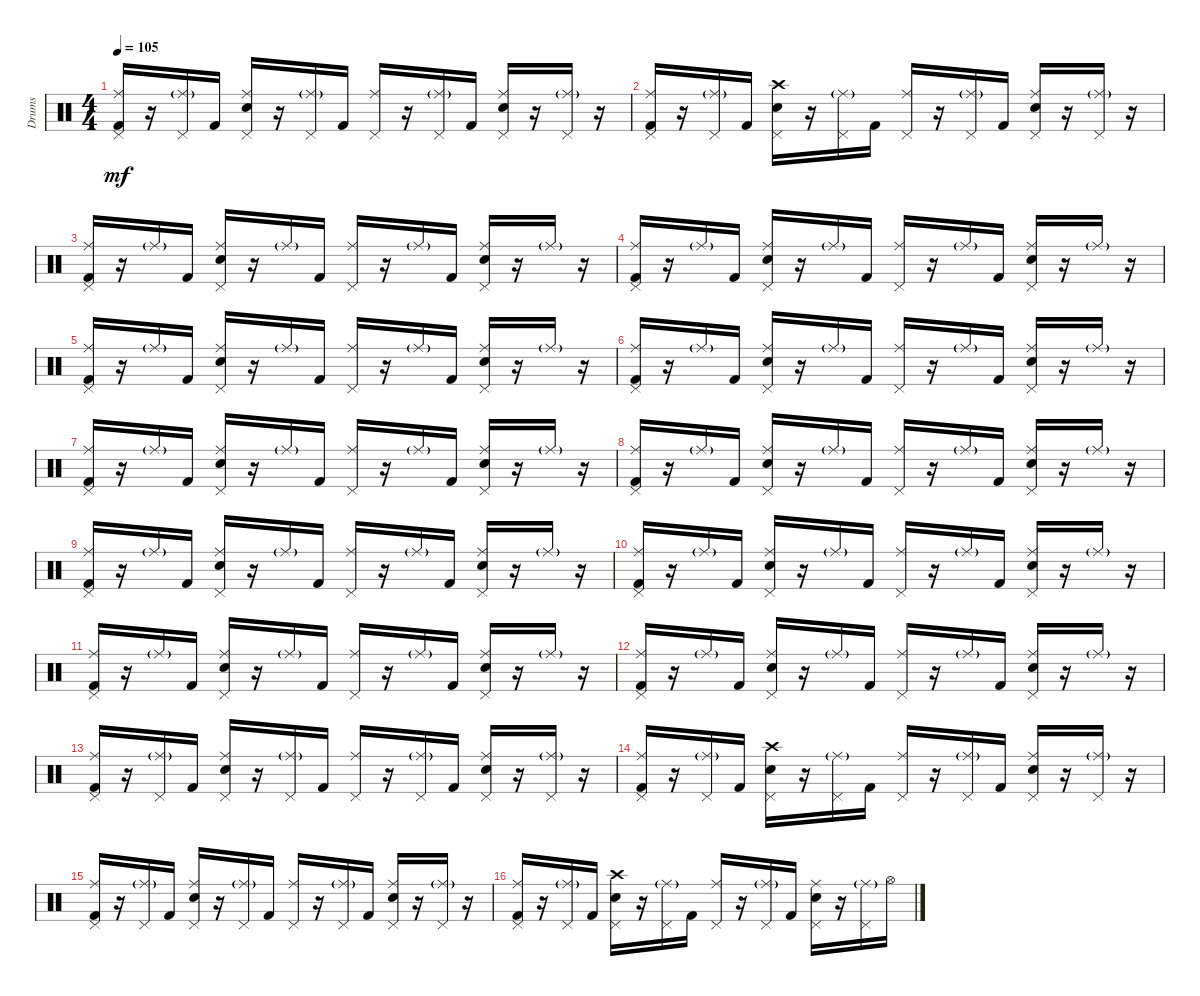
\defaultSystemsLayout 4
\bracketExtendMode groupsimilarinstruments
\otherSystemsTrackNameOrientation horizontal
\track ("Godd" "Drums") {instrument percussion}
\staff {score}
\articulation defaults
\ts (4 4)
\tempo 105
\clef neutral
\ks c
("Pedal Hi-Hat (hit)" "Kick (hit) 2" "Ride (middle)").16{dy mf} r.16 ("Pedal Hi-Hat (hit)" "Ride (middle)"{g}).16 "Kick (hit) 2".16 ("Pedal Hi-Hat (hit)" "Snare (hit) 2" "Ride (middle)").16 r.16 ("Pedal Hi-Hat (hit)" "Ride (middle)"{g}).16 "Kick (hit) 2".16 ("Pedal Hi-Hat (hit)" "Ride (middle)").16 r.16 ("Pedal Hi-Hat (hit)" "Ride (middle)"{g}).16 "Kick (hit) 2".16 ("Pedal Hi-Hat (hit)" "Ride (middle)" "Snare (hit) 2").16 r.16 ("Pedal Hi-Hat (hit)" "Ride (middle)"{g}).16 r.16 |
("Pedal Hi-Hat (hit)" "Kick (hit) 2" "Ride (middle)").16 r.16 ("Pedal Hi-Hat (hit)" "Ride (middle)"{g}).16 "Kick (hit) 2".16 ("Pedal Hi-Hat (hit)" "Snare (hit) 2" "Crash high (hit)").16 r.16 ("Pedal Hi-Hat (hit)" "Ride (middle)"{g}).16 "Kick (hit) 2".16 ("Pedal Hi-Hat (hit)" "Ride (middle)").16 r.16 ("Pedal Hi-Hat (hit)" "Ride (middle)"{g}).16 "Kick (hit) 2".16 ("Pedal Hi-Hat (hit)" "Ride (middle)" "Snare (hit) 2").16 r.16 ("Pedal Hi-Hat (hit)" "Ride (middle)"{g}).16 r.16 |
("Pedal Hi-Hat (hit)" "Kick (hit) 2" "Ride (middle)").16 r.16 "Ride (middle)"{g}.16 "Kick (hit) 2".16 ("Pedal Hi-Hat (hit)" "Snare (hit) 2" "Ride (middle)").16 r.16 "Ride (middle)"{g}.16 "Kick (hit) 2".16 ("Pedal Hi-Hat (hit)" "Ride (middle)").16 r.16 "Ride (middle)"{g}.16 "Kick (hit) 2".16 ("Pedal Hi-Hat (hit)" "Ride (middle)" "Snare (hit) 2").16 r.16 "Ride (middle)"{g}.16 r.16 |
("Pedal Hi-Hat (hit)" "Kick (hit) 2" "Ride (middle)").16 r.16 "Ride (middle)"{g}.16 "Kick (hit) 2".16 ("Pedal Hi-Hat (hit)" "Snare (hit) 2" "Ride (middle)").16 r.16 "Ride (middle)"{g}.16 "Kick (hit) 2".16 ("Pedal Hi-Hat (hit)" "Ride (middle)").16 r.16 "Ride (middle)"{g}.16 "Kick (hit) 2".16 ("Pedal Hi-Hat (hit)" "Ride (middle)" "Snare (hit) 2").16 r.16 "Ride (middle)"{g}.16 r.16 |
("Pedal Hi-Hat (hit)" "Kick (hit) 2" "Ride (middle)").16 r.16 "Ride (middle)"{g}.16 "Kick (hit) 2".16 ("Pedal Hi-Hat (hit)" "Snare (hit) 2" "Ride (middle)").16 r.16 "Ride (middle)"{g}.16 "Kick (hit) 2".16 ("Pedal Hi-Hat (hit)" "Ride (middle)").16 r.16 "Ride (middle)"{g}.16 "Kick (hit) 2".16 ("Pedal Hi-Hat (hit)" "Ride (middle)" "Snare (hit) 2").16 r.16 "Ride (middle)"{g}.16 r.16 |
("Pedal Hi-Hat (hit)" "Kick (hit) 2" "Ride (middle)").16 r.16 "Ride (middle)"{g}.16 "Kick (hit) 2".16 ("Pedal Hi-Hat (hit)" "Snare (hit) 2" "Ride (middle)").16 r.16 "Ride (middle)"{g}.16 "Kick (hit) 2".16 ("Pedal Hi-Hat (hit)" "Ride (middle)").16 r.16 "Ride (middle)"{g}.16 "Kick (hit) 2".16 ("Pedal Hi-Hat (hit)" "Ride (middle)" "Snare (hit) 2").16 r.16 "Ride (middle)"{g}.16 r.16 |
("Pedal Hi-Hat (hit)" "Kick (hit) 2" "Ride (middle)").16 r.16 "Ride (middle)"{g}.16 "Kick (hit) 2".16 ("Pedal Hi-Hat (hit)" "Snare (hit) 2" "Ride (middle)").16 r.16 "Ride (middle)"{g}.16 "Kick (hit) 2".16 ("Pedal Hi-Hat (hit)" "Ride (middle)").16 r.16 "Ride (middle)"{g}.16 "Kick (hit) 2".16 ("Pedal Hi-Hat (hit)" "Ride (middle)" "Snare (hit) 2").16 r.16 "Ride (middle)"{g}.16 r.16 |
("Pedal Hi-Hat (hit)" "Kick (hit) 2" "Ride (middle)").16 r.16 "Ride (middle)"{g}.16 "Kick (hit) 2".16 ("Pedal Hi-Hat (hit)" "Snare (hit) 2" "Ride (middle)").16 r.16 "Ride (middle)"{g}.16 "Kick (hit) 2".16 ("Pedal Hi-Hat (hit)" "Ride (middle)").16 r.16 "Ride (middle)"{g}.16 "Kick (hit) 2".16 ("Pedal Hi-Hat (hit)" "Ride (middle)" "Snare (hit) 2").16 r.16 "Ride (middle)"{g}.16 r.16 |
("Pedal Hi-Hat (hit)" "Kick (hit) 2" "Ride (middle)").16 r.16 "Ride (middle)"{g}.16 "Kick (hit) 2".16 ("Pedal Hi-Hat (hit)" "Snare (hit) 2" "Ride (middle)").16 r.16 "Ride (middle)"{g}.16 "Kick (hit) 2".16 ("Pedal Hi-Hat (hit)" "Ride (middle)").16 r.16 "Ride (middle)"{g}.16 "Kick (hit) 2".16 ("Pedal Hi-Hat (hit)" "Ride (middle)" "Snare (hit) 2").16 r.16 "Ride (middle)"{g}.16 r.16 |
("Pedal Hi-Hat (hit)" "Kick (hit) 2" "Ride (middle)").16 r.16 "Ride (middle)"{g}.16 "Kick (hit) 2".16 ("Pedal Hi-Hat (hit)" "Snare (hit) 2" "Ride (middle)").16 r.16 "Ride (middle)"{g}.16 "Kick (hit) 2".16 ("Pedal Hi-Hat (hit)" "Ride (middle)").16 r.16 "Ride (middle)"{g}.16 "Kick (hit) 2".16 ("Pedal Hi-Hat (hit)" "Ride (middle)" "Snare (hit) 2").16 r.16 "Ride (middle)"{g}.16 r.16 |
("Pedal Hi-Hat (hit)" "Kick (hit) 2" "Ride (middle)").16 r.16 "Ride (middle)"{g}.16 "Kick (hit) 2".16 ("Pedal Hi-Hat (hit)" "Snare (hit) 2" "Ride (middle)").16 r.16 "Ride (middle)"{g}.16 "Kick (hit) 2".16 ("Pedal Hi-Hat (hit)" "Ride (middle)").16 r.16 "Ride (middle)"{g}.16 "Kick (hit) 2".16 ("Pedal Hi-Hat (hit)" "Ride (middle)" "Snare (hit) 2").16 r.16 "Ride (middle)"{g}.16 r.16 |
("Pedal Hi-Hat (hit)" "Kick (hit) 2" "Ride (middle)").16 r.16 "Ride (middle)"{g}.16 "Kick (hit) 2".16 ("Pedal Hi-Hat (hit)" "Snare (hit) 2" "Ride (middle)").16 r.16 "Ride (middle)"{g}.16 "Kick (hit) 2".16 ("Pedal Hi-Hat (hit)" "Ride (middle)").16 r.16 "Ride (middle)"{g}.16 "Kick (hit) 2".16 ("Pedal Hi-Hat (hit)" "Ride (middle)" "Snare (hit) 2").16 r.16 "Ride (middle)"{g}.16 r.16 |
("Pedal Hi-Hat (hit)" "Kick (hit) 2" "Ride (middle)").16 r.16 ("Pedal Hi-Hat (hit)" "Ride (middle)"{g}).16 "Kick (hit) 2".16 ("Pedal Hi-Hat (hit)" "Snare (hit) 2" "Ride (middle)").16 r.16 ("Pedal Hi-Hat (hit)" "Ride (middle)"{g}).16 "Kick (hit) 2".16 ("Pedal Hi-Hat (hit)" "Ride (middle)").16 r.16 ("Pedal Hi-Hat (hit)" "Ride (middle)"{g}).16 "Kick (hit) 2".16 ("Pedal Hi-Hat (hit)" "Ride (middle)" "Snare (hit) 2").16 r.16 ("Pedal Hi-Hat (hit)" "Ride (middle)"{g}).16 r.16 |
("Pedal Hi-Hat (hit)" "Kick (hit) 2" "Ride (middle)").16 r.16 ("Pedal Hi-Hat (hit)" "Ride (middle)"{g}).16 "Kick (hit) 2".16 ("Pedal Hi-Hat (hit)" "Snare (hit) 2" "Crash high (hit)").16 r.16 ("Pedal Hi-Hat (hit)" "Ride (middle)"{g}).16 "Kick (hit) 2".16 ("Pedal Hi-Hat (hit)" "Ride (middle)").16 r.16 ("Pedal Hi-Hat (hit)" "Ride (middle)"{g}).16 "Kick (hit) 2".16 ("Pedal Hi-Hat (hit)" "Ride (middle)" "Snare (hit) 2").16 r.16 ("Pedal Hi-Hat (hit)" "Ride (middle)"{g}).16 r.16 |
("Pedal Hi-Hat (hit)" "Kick (hit) 2" "Ride (middle)").16 r.16 ("Pedal Hi-Hat (hit)" "Ride (middle)"{g}).16 "Kick (hit) 2".16 ("Pedal Hi-Hat (hit)" "Snare (hit) 2" "Ride (middle)").16 r.16 ("Pedal Hi-Hat (hit)" "Ride (middle)"{g}).16 "Kick (hit) 2".16 ("Pedal Hi-Hat (hit)" "Ride (middle)").16 r.16 ("Pedal Hi-Hat (hit)" "Ride (middle)"{g}).16 "Kick (hit) 2".16 ("Pedal Hi-Hat (hit)" "Ride (middle)" "Snare (hit) 2").16 r.16 ("Pedal Hi-Hat (hit)" "Ride (middle)"{g}).16 r.16 |
("Pedal Hi-Hat (hit)" "Kick (hit) 2" "Ride (middle)").16 r.16 ("Pedal Hi-Hat (hit)" "Ride (middle)"{g}).16 "Kick (hit) 2".16 ("Pedal Hi-Hat (hit)" "Snare (hit) 2" "Crash high (hit)").16 r.16 ("Pedal Hi-Hat (hit)" "Ride (middle)"{g}).16 "Kick (hit) 2".16 ("Pedal Hi-Hat (hit)" "Ride (middle)").16 r.16 ("Pedal Hi-Hat (hit)" "Ride (middle)"{g}).16 "Kick (hit) 2".16 ("Pedal Hi-Hat (hit)" "Ride (middle)" "Snare (hit) 2").16 r.16 ("Pedal Hi-Hat (hit)" "Ride (middle)"{g}).16 "Hi-Hat (open)".16
